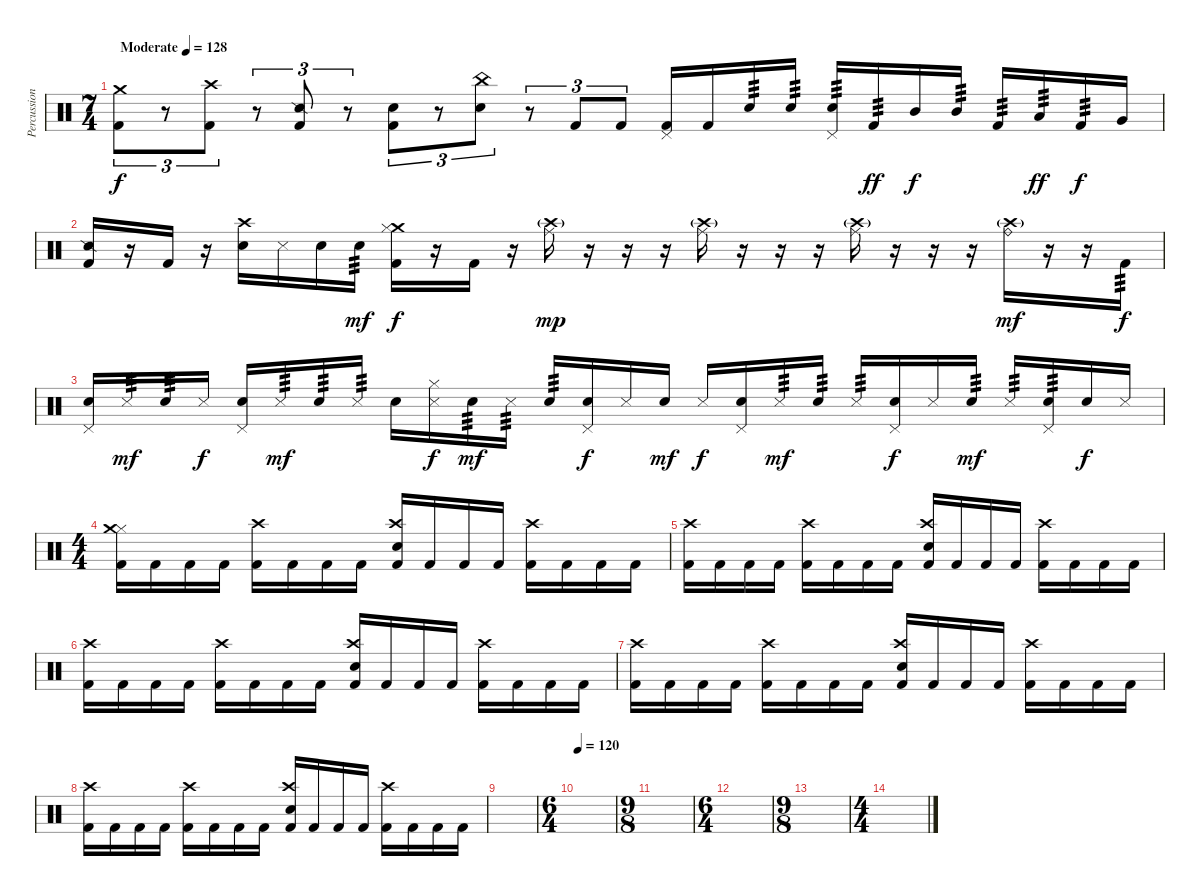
\track ("Percussion" "Percussion") {instrument percussion}
\staff {score}
\articulation defaults
\ts (7 4)
\tempo (128 "Moderate")
\clef neutral
\ks c
("Crash medium (hit)" "Kick (hit) 2").8{tu (3 2) dy f} r.8{tu (3 2)} ("Crash high (hit)" "Kick (hit) 2").8{tu (3 2)} r.8{tu (3 2)} ("Snare (side stick) 2" "Kick (hit) 2").8{tu (3 2)} r.8{tu (3 2)} ("Snare (hit)" "Kick (hit) 2").8{tu (3 2)} r.8{tu (3 2)} ("China (hit)" "Snare (hit) 2").8{tu (3 2)} r.8{tu (3 2)} "Kick (hit) 2".8{tu (3 2)} "Kick (hit) 2".8{tu (3 2)} ("Pedal Hi-Hat (hit)" "Kick (hit) 2").16 "Kick (hit) 2".16 "Snare (hit) 2".16{tp 3} "Snare (hit) 2".16{tp 3} ("Pedal Hi-Hat (hit)" "Snare (hit) 2").16{tp 3} "Kick (hit) 2".16{tp 3 dy ff} "Mid Tom (hit)".16{dy f} "Mid Tom (hit)".16{tp 3} "Kick (hit) 2".16{tp 3} "Low Tom (hit)".16{tp 3 dy ff} "Kick (hit) 2".16{tp 3 dy f} "Very Low Tom (hit)".16 |
("Snare (side stick) 2" "Kick (hit) 2").16 r.16 "Kick (hit) 2".16 r.16 ("Crash high (hit)" "Snare (hit) 2").16 "Metronome (hit)".16 "Snare (hit) 2".16 "Snare (hit) 2".16{tp 3 dy mf} ("Crash medium (hit)" "Hi-Hat (closed)" "Kick (hit) 2").16{dy f} r.16 "Kick (hit) 2".16 r.16 ("Ride (middle)" "Crash high (hit)"{g}).16{dy mp} r.16 r.16 r.16 ("Ride (middle)" "Crash high (hit)"{g}).16 r.16 r.16 r.16 ("Ride (middle)" "Crash high (hit)"{g}).16 r.16 r.16 r.16 ("Ride (bell)" "Crash high (hit)"{g}).16{dy mf} r.16 r.16 "Kick (hit) 2".16{tp 3 dy f} |
("Pedal Hi-Hat (hit)" "Snare (hit) 2").16 "Metronome (hit)".16{tp 3 dy mf} "Snare (hit) 2".16{tp 3} "Metronome (hit)".16{dy f} ("Pedal Hi-Hat (hit)" "Snare (hit) 2").16 "Metronome (hit)".16{tp 3 dy mf} "Snare (hit) 2".16{tp 3} "Metronome (hit)".16{tp 3} "Snare (hit) 2".16 ("Hi-Hat (closed)" "Metronome (hit)").16{dy f} "Snare (hit) 2".16{tp 3 dy mf} "Metronome (hit)".16{tp 3} "Snare (hit) 2".16{tp 3} ("Pedal Hi-Hat (hit)" "Snare (hit) 2").16{dy f} "Metronome (hit)".16 "Snare (hit) 2".16{dy mf} "Metronome (hit)".16{dy f} ("Pedal Hi-Hat (hit)" "Snare (hit) 2").16 "Metronome (hit)".16{tp 3 dy mf} "Snare (hit) 2".16{tp 3} "Metronome (hit)".16{tp 3} ("Pedal Hi-Hat (hit)" "Snare (hit) 2").16{dy f} "Metronome (hit)".16 "Snare (hit) 2".16{tp 3 dy mf} "Metronome (hit)".16{tp 3} ("Pedal Hi-Hat (hit)" "Snare (hit) 2").16{tp 3} "Snare (hit) 2".16{dy f} "Metronome (hit)".16 |
\ts (4 4)
("Hi-Hat (closed)" "Crash medium (hit)" "Kick (hit) 2").16 "Kick (hit) 2".16 "Kick (hit) 2".16 "Kick (hit) 2".16 ("Crash high (hit)" "Kick (hit) 2").16 "Kick (hit) 2".16 "Kick (hit) 2".16 "Kick (hit) 2".16 ("Crash high (hit)" "Snare (hit) 2" "Kick (hit) 2").16 "Kick (hit) 2".16 "Kick (hit) 2".16 "Kick (hit) 2".16 ("Crash high (hit)" "Kick (hit) 2").16 "Kick (hit) 2".16 "Kick (hit) 2".16 "Kick (hit) 2".16 |
("Crash high (hit)" "Kick (hit) 2").16 "Kick (hit) 2".16 "Kick (hit) 2".16 "Kick (hit) 2".16 ("Crash high (hit)" "Kick (hit) 2").16 "Kick (hit) 2".16 "Kick (hit) 2".16 "Kick (hit) 2".16 ("Crash high (hit)" "Snare (hit) 2" "Kick (hit) 2").16 "Kick (hit) 2".16 "Kick (hit) 2".16 "Kick (hit) 2".16 ("Crash high (hit)" "Kick (hit) 2").16 "Kick (hit) 2".16 "Kick (hit) 2".16 "Kick (hit) 2".16 |
("Crash high (hit)" "Kick (hit) 2").16 "Kick (hit) 2".16 "Kick (hit) 2".16 "Kick (hit) 2".16 ("Crash high (hit)" "Kick (hit) 2").16 "Kick (hit) 2".16 "Kick (hit) 2".16 "Kick (hit) 2".16 ("Crash high (hit)" "Snare (hit) 2" "Kick (hit) 2").16 "Kick (hit) 2".16 "Kick (hit) 2".16 "Kick (hit) 2".16 ("Crash high (hit)" "Kick (hit) 2").16 "Kick (hit) 2".16 "Kick (hit) 2".16 "Kick (hit) 2".16 |
("Crash high (hit)" "Kick (hit) 2").16 "Kick (hit) 2".16 "Kick (hit) 2".16 "Kick (hit) 2".16 ("Crash high (hit)" "Kick (hit) 2").16 "Kick (hit) 2".16 "Kick (hit) 2".16 "Kick (hit) 2".16 ("Crash high (hit)" "Snare (hit) 2" "Kick (hit) 2").16 "Kick (hit) 2".16 "Kick (hit) 2".16 "Kick (hit) 2".16 ("Crash high (hit)" "Kick (hit) 2").16 "Kick (hit) 2".16 "Kick (hit) 2".16 "Kick (hit) 2".16 |
("Crash high (hit)" "Kick (hit) 2").16 "Kick (hit) 2".16 "Kick (hit) 2".16 "Kick (hit) 2".16 ("Crash high (hit)" "Kick (hit) 2").16 "Kick (hit) 2".16 "Kick (hit) 2".16 "Kick (hit) 2".16 ("Crash high (hit)" "Snare (hit) 2" "Kick (hit) 2").16 "Kick (hit) 2".16 "Kick (hit) 2".16 "Kick (hit) 2".16 ("Crash high (hit)" "Kick (hit) 2").16 "Kick (hit) 2".16 "Kick (hit) 2".16 "Kick (hit) 2".16 |
|
\ts (6 4)
\tempo 120
|
\ts (9 8)
|
\ts (6 4)
|
\ts (9 8)
|
\ts (4 4)
